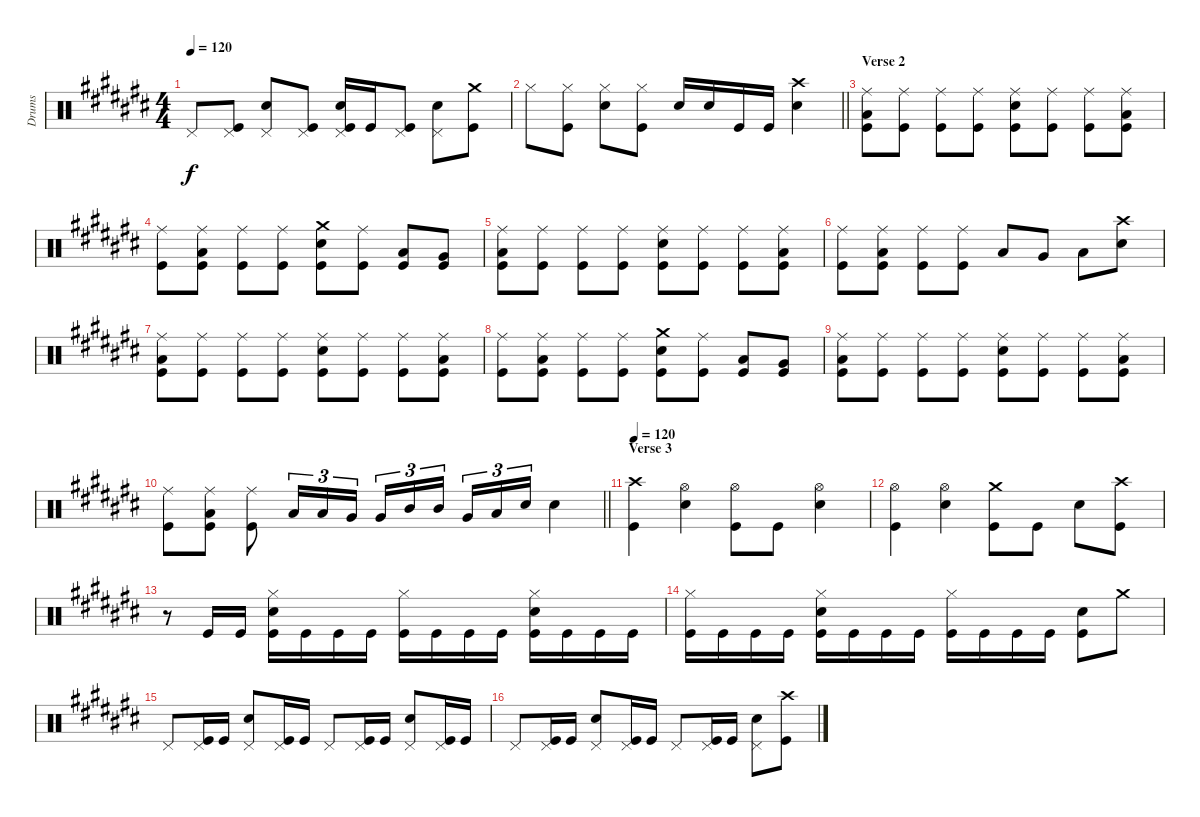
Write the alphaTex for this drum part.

\track ("Drums" "Drums") {instrument percussion}
\staff {score}
\articulation defaults
\ts (4 4)
\tempo 120
\clef neutral
\ks c# "Pedal Hi-Hat (hit)".8{dy f}
("Pedal Hi-Hat (hit)" "Kick (hit)").8 ("Pedal Hi-Hat (hit)" "Snare (hit) 2").8 ("Pedal Hi-Hat (hit)" "Kick (hit)").8 ("Pedal Hi-Hat (hit)" "Snare (hit) 2" "Kick (hit)").16 "Kick (hit)".16 ("Pedal Hi-Hat (hit)" "Kick (hit)").8 ("Pedal Hi-Hat (hit)" "Snare (hit) 2").8 ("Crash medium (hit)" "Kick (hit)").8 |
\barLineRight lightlight "Hi-Hat (closed)".8
("Hi-Hat (closed)" "Kick (hit)").8 ("Hi-Hat (closed)" "Snare (hit) 2").8 ("Hi-Hat (closed)" "Kick (hit)").8 "Snare (hit) 2".16 "Snare (hit) 2".16 "Kick (hit)".16 "Kick (hit)".16 ("Crash high (hit)" "Snare (hit) 2").4 |
\section ("" "Verse 2")
("Ride (middle)" "Low Tom (hit)" "Kick (hit)").8 ("Ride (middle)" "Kick (hit)").8 ("Ride (middle)" "Kick (hit)").8 ("Ride (middle)" "Kick (hit)").8 ("Ride (middle)" "Snare (hit) 2" "Kick (hit)").8 ("Ride (middle)" "Kick (hit)").8 ("Ride (middle)" "Kick (hit)").8 ("Ride (middle)" "Low Tom (hit)" "Kick (hit)").8 |
("Ride (middle)" "Kick (hit)").8 ("Ride (middle)" "Low Tom (hit)" "Kick (hit)").8 ("Ride (middle)" "Kick (hit)").8 ("Ride (middle)" "Kick (hit)").8 ("Crash medium (hit)" "Snare (hit) 2" "Kick (hit)").8 ("Ride (middle)" "Kick (hit)").8 ("Low Tom (hit)" "Kick (hit)").8 ("Very Low Tom (hit)" "Kick (hit)").8 |
("Ride (middle)" "Low Tom (hit)" "Kick (hit)").8 ("Ride (middle)" "Kick (hit)").8 ("Ride (middle)" "Kick (hit)").8 ("Ride (middle)" "Kick (hit)").8 ("Ride (middle)" "Snare (hit) 2" "Kick (hit)").8 ("Ride (middle)" "Kick (hit)").8 ("Ride (middle)" "Kick (hit)").8 ("Ride (middle)" "Low Tom (hit)" "Kick (hit)").8 |
("Ride (middle)" "Kick (hit)").8 ("Ride (middle)" "Low Tom (hit)" "Kick (hit)").8 ("Ride (middle)" "Kick (hit)").8 ("Ride (middle)" "Kick (hit)").8 "Low Tom (hit)".8 "Very Low Tom (hit)".8 "Low Floor Tom (hit)".8 ("Crash high (hit)" "Snare (hit) 2").8 |
("Ride (middle)" "Low Tom (hit)" "Kick (hit)").8 ("Ride (middle)" "Kick (hit)").8 ("Ride (middle)" "Kick (hit)").8 ("Ride (middle)" "Kick (hit)").8 ("Ride (middle)" "Snare (hit) 2" "Kick (hit)").8 ("Ride (middle)" "Kick (hit)").8 ("Ride (middle)" "Kick (hit)").8 ("Ride (middle)" "Low Tom (hit)" "Kick (hit)").8 |
("Ride (middle)" "Kick (hit)").8 ("Ride (middle)" "Low Tom (hit)" "Kick (hit)").8 ("Ride (middle)" "Kick (hit)").8 ("Ride (middle)" "Kick (hit)").8 ("Crash medium (hit)" "Snare (hit) 2" "Kick (hit)").8 ("Ride (middle)" "Kick (hit)").8 ("Low Tom (hit)" "Kick (hit)").8 ("Very Low Tom (hit)" "Kick (hit)").8 |
("Ride (middle)" "Low Tom (hit)" "Kick (hit)").8 ("Ride (middle)" "Kick (hit)").8 ("Ride (middle)" "Kick (hit)").8 ("Ride (middle)" "Kick (hit)").8 ("Ride (middle)" "Snare (hit) 2" "Kick (hit)").8 ("Ride (middle)" "Kick (hit)").8 ("Ride (middle)" "Kick (hit)").8 ("Ride (middle)" "Low Tom (hit)" "Kick (hit)").8 |
\barLineRight lightlight
("Ride (middle)" "Kick (hit)").8 ("Ride (middle)" "Low Tom (hit)" "Kick (hit)").8 ("Ride (middle)" "Kick (hit)").8 "Low Tom (hit)".16{tu (3 2)} "Low Tom (hit)".16{tu (3 2)} "Very Low Tom (hit)".16{tu (3 2)} "Very Low Tom (hit)".16{tu (3 2)} "Mid Tom (hit)".16{tu (3 2)} "Mid Tom (hit)".16{tu (3 2) beam splitsecondary} "Very Low Tom (hit)".16{tu (3 2)} "Low Tom (hit)".16{tu (3 2)} "Snare (hit) 2".16{tu (3 2)} "Snare (hit) 2".4 |
\section ("" "Verse 3")
\tempo 120
("Crash high (hit)" "Kick (hit)").4 ("Hi-Hat (open)" "Snare (hit) 2").4 ("Hi-Hat (open)" "Kick (hit)").8 "Kick (hit)".8 ("Hi-Hat (open)" "Snare (hit) 2").4 |
("Hi-Hat (open)" "Kick (hit)").4 ("Hi-Hat (open)" "Snare (hit) 2").4 ("Crash medium (hit)" "Kick (hit)").8 "Kick (hit)".8 "Snare (hit) 2".8 ("Crash high (hit)" "Kick (hit)").8 |
r.8 "Kick (hit)".16 "Kick (hit)".16 ("Hi-Hat (closed)" "Snare (hit) 2" "Kick (hit)").16 "Kick (hit)".16 "Kick (hit)".16 "Kick (hit)".16 ("Hi-Hat (closed)" "Kick (hit)").16 "Kick (hit)".16 "Kick (hit)".16 "Kick (hit)".16 ("Hi-Hat (closed)" "Snare (hit) 2" "Kick (hit)").16 "Kick (hit)".16 "Kick (hit)".16 "Kick (hit)".16 |
("Hi-Hat (closed)" "Kick (hit)").16 "Kick (hit)".16 "Kick (hit)".16 "Kick (hit)".16 ("Hi-Hat (closed)" "Snare (hit) 2" "Kick (hit)").16 "Kick (hit)".16 "Kick (hit)".16 "Kick (hit)".16 ("Hi-Hat (closed)" "Kick (hit)").16 "Kick (hit)".16 "Kick (hit)".16 "Kick (hit)".16 ("Snare (hit) 2" "Kick (hit)").8 "Crash medium (hit)".8 |
"Pedal Hi-Hat (hit)".8 ("Pedal Hi-Hat (hit)" "Kick (hit)").16 "Kick (hit)".16 ("Pedal Hi-Hat (hit)" "Snare (hit) 2").8 ("Pedal Hi-Hat (hit)" "Kick (hit)").16 "Kick (hit)".16 "Pedal Hi-Hat (hit)".8 ("Pedal Hi-Hat (hit)" "Kick (hit)").16 "Kick (hit)".16 ("Pedal Hi-Hat (hit)" "Snare (hit) 2").8 ("Pedal Hi-Hat (hit)" "Kick (hit)").16 "Kick (hit)".16 |
"Pedal Hi-Hat (hit)".8 ("Pedal Hi-Hat (hit)" "Kick (hit)").16 "Kick (hit)".16 ("Pedal Hi-Hat (hit)" "Snare (hit) 2").8 ("Pedal Hi-Hat (hit)" "Kick (hit)").16 "Kick (hit)".16 "Pedal Hi-Hat (hit)".8 ("Pedal Hi-Hat (hit)" "Kick (hit)").16 "Kick (hit)".16 ("Pedal Hi-Hat (hit)" "Snare (hit) 2").8 ("Crash high (hit)" "Kick (hit)").8
